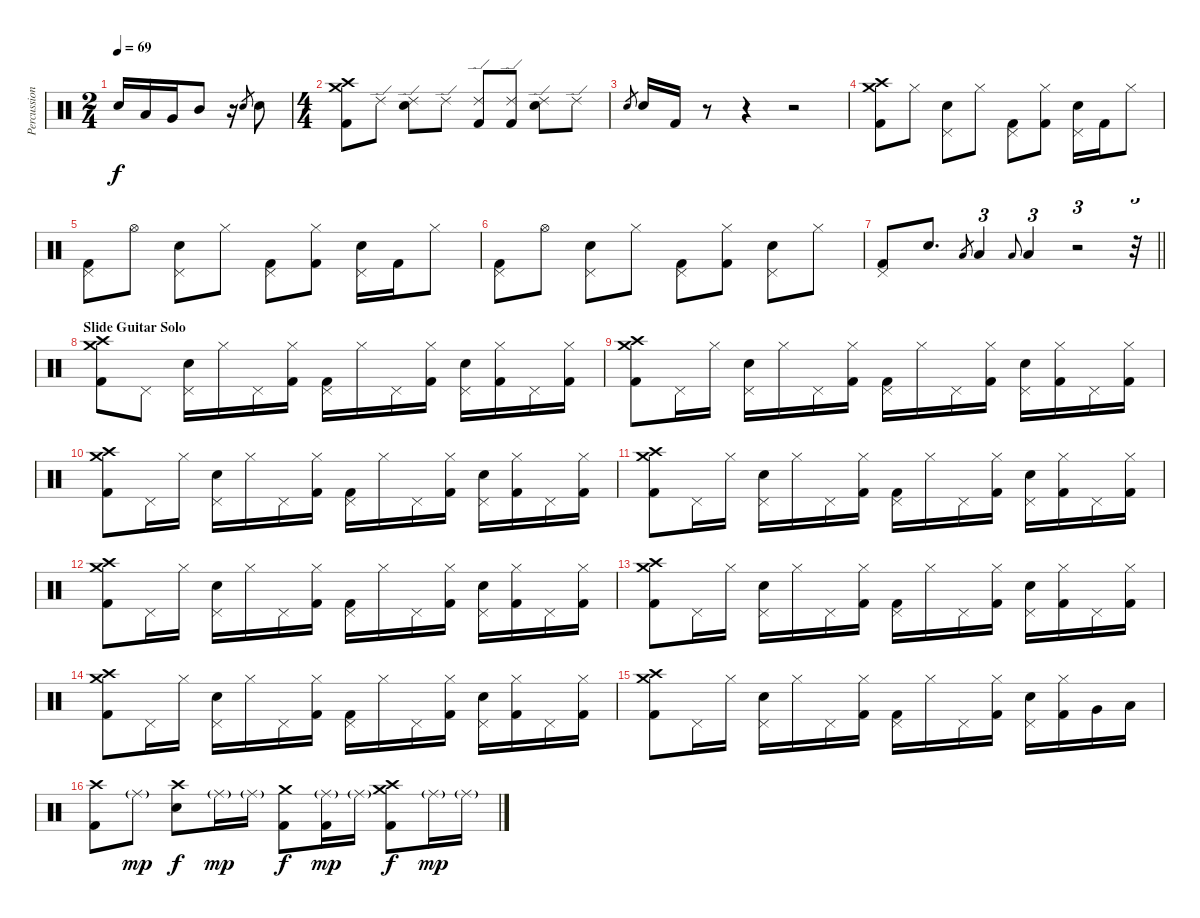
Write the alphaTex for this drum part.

\track ("Percussion" "Percussion") {instrument percussion}
\staff {score}
\articulation defaults
\ts (2 4)
\tempo 69
\clef neutral
\ks c "Snare (hit) 2".16{dy f} "Low Tom (hit)".16 "Very Low Tom (hit)".16 "Mid Tom (hit)".8
r.16 "Snare (hit) 2".8{gr} "Snare (hit) 2".8 |
\ts (4 4)
("Crash medium (hit)" "Crash high (hit)" "Kick (hit) 2").8 "Ride (edge) 2".8 ("Ride (edge) 2" "Snare (hit) 2").8 "Ride (edge) 2".8 ("Ride (edge) 2" "Kick (hit) 2").8 ("Ride (edge) 2" "Kick (hit) 2").8 ("Ride (edge) 2" "Snare (hit) 2").8 "Ride (edge) 2".8 |
"Snare (hit) 2".8{gr} "Snare (hit) 2".16 "Kick (hit) 2".16 r.8 r.4 r.2 |
("Crash medium (hit)" "Crash high (hit)" "Kick (hit) 2").8 "Hi-Hat (closed)".8 ("Snare (hit) 2" "Pedal Hi-Hat (hit)").8 "Hi-Hat (closed)".8 ("Pedal Hi-Hat (hit)" "Kick (hit) 2").8 ("Hi-Hat (closed)" "Kick (hit) 2").8 ("Snare (hit) 2" "Pedal Hi-Hat (hit)").16 "Kick (hit) 2".16 "Hi-Hat (closed)".8 |
("Pedal Hi-Hat (hit)" "Kick (hit) 2").8 "Hi-Hat (open)".8 ("Snare (hit) 2" "Pedal Hi-Hat (hit)").8 "Hi-Hat (closed)".8 ("Pedal Hi-Hat (hit)" "Kick (hit) 2").8 ("Hi-Hat (closed)" "Kick (hit) 2").8 ("Snare (hit) 2" "Pedal Hi-Hat (hit)").16 "Kick (hit) 2".16 "Hi-Hat (closed)".8 |
("Pedal Hi-Hat (hit)" "Kick (hit) 2").8 "Hi-Hat (open)".8 ("Snare (hit) 2" "Pedal Hi-Hat (hit)").8 "Hi-Hat (closed)".8 ("Pedal Hi-Hat (hit)" "Kick (hit) 2").8 ("Hi-Hat (closed)" "Kick (hit) 2").8 ("Snare (hit) 2" "Pedal Hi-Hat (hit)").8 "Hi-Hat (closed)".8 |
\barLineRight lightlight
("Pedal Hi-Hat (hit)" "Kick (hit) 2").8 "Snare (hit) 2".8{d} "Low Tom (hit)".8{gr} "Low Tom (hit)".4{tu (3 2)} "Low Floor Tom (hit)".8{gr onbeat} "Low Floor Tom (hit)".4{tu (3 2)} r.2{tu (3 2)} r.32{tu (3 2)} |
\section ("" "Slide Guitar Solo")
("Crash medium (hit)" "Crash high (hit)" "Kick (hit) 2").8 "Pedal Hi-Hat (hit)".8 ("Snare (hit) 2" "Pedal Hi-Hat (hit)").16 "Hi-Hat (closed)".16 "Pedal Hi-Hat (hit)".16 ("Hi-Hat (closed)" "Kick (hit) 2").16 ("Pedal Hi-Hat (hit)" "Kick (hit) 2").16 "Hi-Hat (closed)".16 "Pedal Hi-Hat (hit)".16 ("Hi-Hat (closed)" "Kick (hit) 2").16 ("Snare (hit) 2" "Pedal Hi-Hat (hit)").16 ("Hi-Hat (closed)" "Kick (hit) 2").16 "Pedal Hi-Hat (hit)".16 ("Hi-Hat (closed)" "Kick (hit) 2").16 |
("Crash medium (hit)" "Crash high (hit)" "Kick (hit) 2").8 "Pedal Hi-Hat (hit)".16 "Hi-Hat (closed)".16 ("Snare (hit) 2" "Pedal Hi-Hat (hit)").16 "Hi-Hat (closed)".16 "Pedal Hi-Hat (hit)".16 ("Hi-Hat (closed)" "Kick (hit) 2").16 ("Pedal Hi-Hat (hit)" "Kick (hit) 2").16 "Hi-Hat (closed)".16 "Pedal Hi-Hat (hit)".16 ("Hi-Hat (closed)" "Kick (hit) 2").16 ("Snare (hit) 2" "Pedal Hi-Hat (hit)").16 ("Hi-Hat (closed)" "Kick (hit) 2").16 "Pedal Hi-Hat (hit)".16 ("Hi-Hat (closed)" "Kick (hit) 2").16 |
("Crash medium (hit)" "Crash high (hit)" "Kick (hit) 2").8 "Pedal Hi-Hat (hit)".16 "Hi-Hat (closed)".16 ("Snare (hit) 2" "Pedal Hi-Hat (hit)").16 "Hi-Hat (closed)".16 "Pedal Hi-Hat (hit)".16 ("Hi-Hat (closed)" "Kick (hit) 2").16 ("Pedal Hi-Hat (hit)" "Kick (hit) 2").16 "Hi-Hat (closed)".16 "Pedal Hi-Hat (hit)".16 ("Hi-Hat (closed)" "Kick (hit) 2").16 ("Snare (hit) 2" "Pedal Hi-Hat (hit)").16 ("Hi-Hat (closed)" "Kick (hit) 2").16 "Pedal Hi-Hat (hit)".16 ("Hi-Hat (closed)" "Kick (hit) 2").16 |
("Crash medium (hit)" "Crash high (hit)" "Kick (hit) 2").8 "Pedal Hi-Hat (hit)".16 "Hi-Hat (closed)".16 ("Snare (hit) 2" "Pedal Hi-Hat (hit)").16 "Hi-Hat (closed)".16 "Pedal Hi-Hat (hit)".16 ("Hi-Hat (closed)" "Kick (hit) 2").16 ("Pedal Hi-Hat (hit)" "Kick (hit) 2").16 "Hi-Hat (closed)".16 "Pedal Hi-Hat (hit)".16 ("Hi-Hat (closed)" "Kick (hit) 2").16 ("Snare (hit) 2" "Pedal Hi-Hat (hit)").16 ("Hi-Hat (closed)" "Kick (hit) 2").16 "Pedal Hi-Hat (hit)".16 ("Hi-Hat (closed)" "Kick (hit) 2").16 |
("Crash medium (hit)" "Crash high (hit)" "Kick (hit) 2").8 "Pedal Hi-Hat (hit)".16 "Hi-Hat (closed)".16 ("Snare (hit) 2" "Pedal Hi-Hat (hit)").16 "Hi-Hat (closed)".16 "Pedal Hi-Hat (hit)".16 ("Hi-Hat (closed)" "Kick (hit) 2").16 ("Pedal Hi-Hat (hit)" "Kick (hit) 2").16 "Hi-Hat (closed)".16 "Pedal Hi-Hat (hit)".16 ("Hi-Hat (closed)" "Kick (hit) 2").16 ("Snare (hit) 2" "Pedal Hi-Hat (hit)").16 ("Hi-Hat (closed)" "Kick (hit) 2").16 "Pedal Hi-Hat (hit)".16 ("Hi-Hat (closed)" "Kick (hit) 2").16 |
("Crash medium (hit)" "Crash high (hit)" "Kick (hit) 2").8 "Pedal Hi-Hat (hit)".16 "Hi-Hat (closed)".16 ("Snare (hit) 2" "Pedal Hi-Hat (hit)").16 "Hi-Hat (closed)".16 "Pedal Hi-Hat (hit)".16 ("Hi-Hat (closed)" "Kick (hit) 2").16 ("Pedal Hi-Hat (hit)" "Kick (hit) 2").16 "Hi-Hat (closed)".16 "Pedal Hi-Hat (hit)".16 ("Hi-Hat (closed)" "Kick (hit) 2").16 ("Snare (hit) 2" "Pedal Hi-Hat (hit)").16 ("Hi-Hat (closed)" "Kick (hit) 2").16 "Pedal Hi-Hat (hit)".16 ("Hi-Hat (closed)" "Kick (hit) 2").16 |
("Crash medium (hit)" "Crash high (hit)" "Kick (hit) 2").8 "Pedal Hi-Hat (hit)".16 "Hi-Hat (closed)".16 ("Snare (hit) 2" "Pedal Hi-Hat (hit)").16 "Hi-Hat (closed)".16 "Pedal Hi-Hat (hit)".16 ("Hi-Hat (closed)" "Kick (hit) 2").16 ("Pedal Hi-Hat (hit)" "Kick (hit) 2").16 "Hi-Hat (closed)".16 "Pedal Hi-Hat (hit)".16 ("Hi-Hat (closed)" "Kick (hit) 2").16 ("Snare (hit) 2" "Pedal Hi-Hat (hit)").16 ("Hi-Hat (closed)" "Kick (hit) 2").16 "Pedal Hi-Hat (hit)".16 ("Hi-Hat (closed)" "Kick (hit) 2").16 |
("Crash medium (hit)" "Crash high (hit)" "Kick (hit) 2").8 "Pedal Hi-Hat (hit)".16 "Hi-Hat (closed)".16 ("Snare (hit) 2" "Pedal Hi-Hat (hit)").16 "Hi-Hat (closed)".16 "Pedal Hi-Hat (hit)".16 ("Hi-Hat (closed)" "Kick (hit) 2").16 ("Pedal Hi-Hat (hit)" "Kick (hit) 2").16 "Hi-Hat (closed)".16 "Pedal Hi-Hat (hit)".16 ("Hi-Hat (closed)" "Kick (hit) 2").16 ("Snare (hit) 2" "Pedal Hi-Hat (hit)").16 ("Hi-Hat (closed)" "Kick (hit) 2").16 "Very Low Tom (hit)".16 "Low Floor Tom (hit)".16 |
("Crash high (hit)" "Kick (hit) 2").8 "Ride (middle)"{g}.8{dy mp} ("Crash high (hit)" "Snare (hit) 2").8{dy f} "Ride (middle)"{g}.16{dy mp} "Ride (middle)"{g}.16 ("Crash medium (hit)" "Kick (hit) 2").8{dy f} ("Ride (middle)"{g} "Kick (hit) 2").16{dy mp} "Ride (middle)"{g}.16 ("Crash medium (hit)" "Crash high (hit)" "Kick (hit) 2").8{dy f} "Ride (middle)"{g}.16{dy mp} "Ride (middle)"{g}.16
